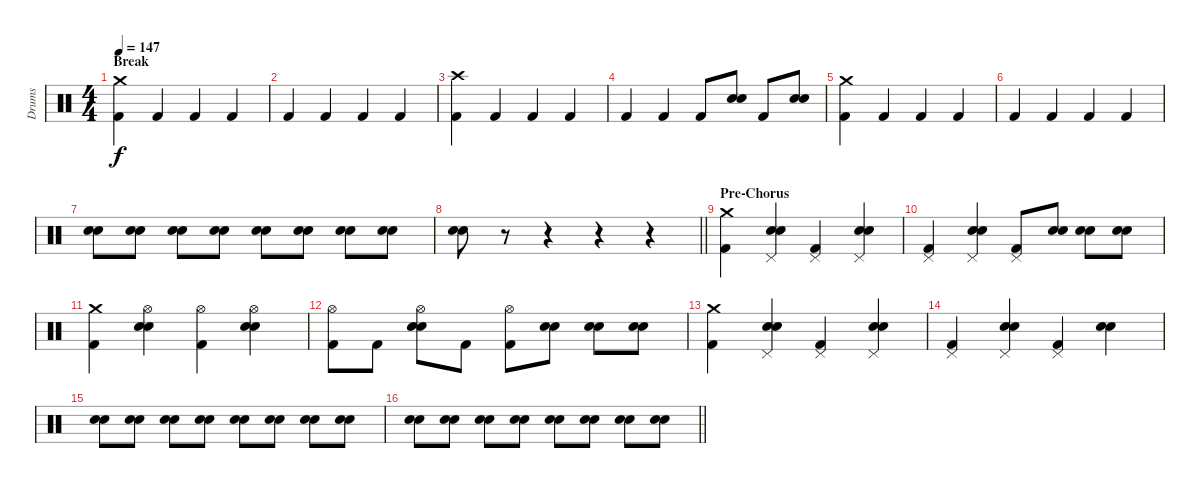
\track ("Drums" "Drums") {instrument percussion}
\staff {score}
\articulation defaults
\ts (4 4)
\section ("" "Break")
\tempo 147
\clef neutral
\ks c
("Crash medium (hit)" "Kick (hit) 2").4{dy f} "Kick (hit) 2".4 "Kick (hit) 2".4 "Kick (hit) 2".4 |
"Kick (hit) 2".4 "Kick (hit) 2".4 "Kick (hit) 2".4 "Kick (hit) 2".4 |
("Crash high (hit)" "Kick (hit) 2").4 "Kick (hit) 2".4 "Kick (hit) 2".4 "Kick (hit) 2".4 |
"Kick (hit) 2".4 "Kick (hit) 2".4 "Kick (hit) 2".8 ("Electric Snare (hit)" "Snare (hit) 2").8 "Kick (hit) 2".8 ("Electric Snare (hit)" "Snare (hit) 2").8 |
("Crash medium (hit)" "Kick (hit) 2").4 "Kick (hit) 2".4 "Kick (hit) 2".4 "Kick (hit) 2".4 |
"Kick (hit) 2".4 "Kick (hit) 2".4 "Kick (hit) 2".4 "Kick (hit) 2".4 |
("Electric Snare (hit)" "Snare (hit) 2").8 ("Electric Snare (hit)" "Snare (hit) 2").8 ("Electric Snare (hit)" "Snare (hit) 2").8 ("Electric Snare (hit)" "Snare (hit) 2").8 ("Electric Snare (hit)" "Snare (hit) 2").8 ("Electric Snare (hit)" "Snare (hit) 2").8 ("Electric Snare (hit)" "Snare (hit) 2").8 ("Electric Snare (hit)" "Snare (hit) 2").8 |
\barLineRight lightlight
("Electric Snare (hit)" "Snare (hit) 2").8 r.8 r.4 r.4 r.4 |
\section ("" "Pre-Chorus")
("Crash medium (hit)" "Kick (hit) 2").4 ("Pedal Hi-Hat (hit)" "Electric Snare (hit)" "Snare (hit) 2").4 ("Pedal Hi-Hat (hit)" "Kick (hit) 2").4 ("Pedal Hi-Hat (hit)" "Electric Snare (hit)" "Snare (hit) 2").4 |
("Pedal Hi-Hat (hit)" "Kick (hit) 2").4 ("Pedal Hi-Hat (hit)" "Electric Snare (hit)" "Snare (hit) 2").4 ("Pedal Hi-Hat (hit)" "Kick (hit) 2").8 ("Electric Snare (hit)" "Snare (hit) 2").8 ("Electric Snare (hit)" "Snare (hit) 2").8 ("Electric Snare (hit)" "Snare (hit) 2").8 |
("Crash medium (hit)" "Kick (hit) 2").4 ("Hi-Hat (open)" "Electric Snare (hit)" "Snare (hit) 2").4 ("Hi-Hat (open)" "Kick (hit) 2").4 ("Hi-Hat (open)" "Electric Snare (hit)" "Snare (hit) 2").4 |
("Hi-Hat (open)" "Kick (hit) 2").8 "Kick (hit) 2".8 ("Hi-Hat (open)" "Electric Snare (hit)" "Snare (hit) 2").8 "Kick (hit) 2".8 ("Hi-Hat (open)" "Kick (hit) 2").8 ("Electric Snare (hit)" "Snare (hit) 2").8 ("Electric Snare (hit)" "Snare (hit) 2").8 ("Electric Snare (hit)" "Snare (hit) 2").8 |
("Crash medium (hit)" "Kick (hit) 2").4 ("Pedal Hi-Hat (hit)" "Electric Snare (hit)" "Snare (hit) 2").4 ("Pedal Hi-Hat (hit)" "Kick (hit) 2").4 ("Pedal Hi-Hat (hit)" "Electric Snare (hit)" "Snare (hit) 2").4 |
("Pedal Hi-Hat (hit)" "Kick (hit) 2").4 ("Pedal Hi-Hat (hit)" "Electric Snare (hit)" "Snare (hit) 2").4 ("Pedal Hi-Hat (hit)" "Kick (hit) 2").4 ("Electric Snare (hit)" "Snare (hit) 2").4 |
("Electric Snare (hit)" "Snare (hit) 2").8 ("Electric Snare (hit)" "Snare (hit) 2").8 ("Electric Snare (hit)" "Snare (hit) 2").8 ("Electric Snare (hit)" "Snare (hit) 2").8 ("Electric Snare (hit)" "Snare (hit) 2").8 ("Electric Snare (hit)" "Snare (hit) 2").8 ("Electric Snare (hit)" "Snare (hit) 2").8 ("Electric Snare (hit)" "Snare (hit) 2").8 |
\barLineRight lightlight
("Electric Snare (hit)" "Snare (hit) 2").8 ("Electric Snare (hit)" "Snare (hit) 2").8 ("Electric Snare (hit)" "Snare (hit) 2").8 ("Electric Snare (hit)" "Snare (hit) 2").8 ("Electric Snare (hit)" "Snare (hit) 2").8 ("Electric Snare (hit)" "Snare (hit) 2").8 ("Electric Snare (hit)" "Snare (hit) 2").8 ("Electric Snare (hit)" "Snare (hit) 2").8
